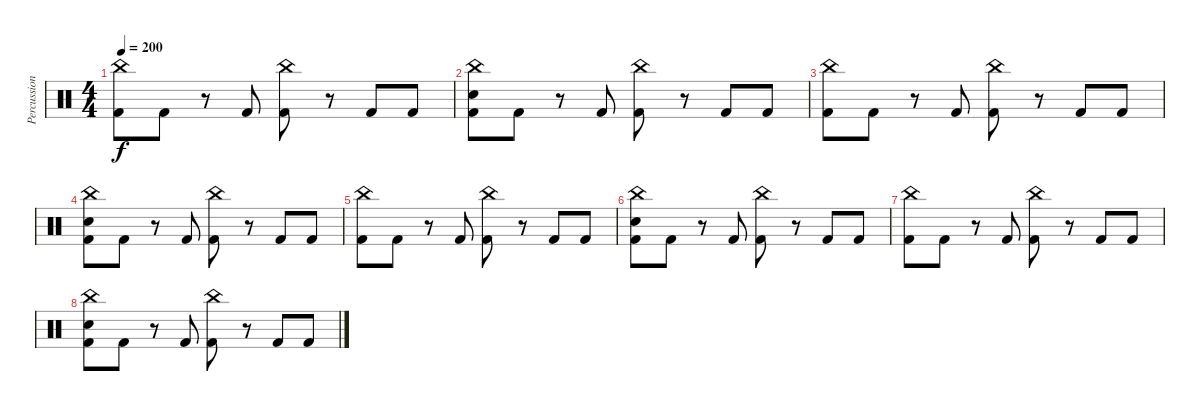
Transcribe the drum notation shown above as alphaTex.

\track ("Percussion" "Percussion") {instrument percussion}
\staff {score}
\articulation defaults
\ts (4 4)
\tempo 200
\clef neutral
\ks c
("China (hit)" "Kick (hit) 2").8{dy f} "Kick (hit) 2".8 r.8 "Kick (hit) 2".8 ("China (hit)" "Kick (hit) 2").8 r.8 "Kick (hit) 2".8 "Kick (hit) 2".8 |
("China (hit)" "Electric Snare (hit)" "Kick (hit) 2").8 "Kick (hit) 2".8 r.8 "Kick (hit) 2".8 ("China (hit)" "Kick (hit) 2").8 r.8 "Kick (hit) 2".8 "Kick (hit) 2".8 |
("China (hit)" "Kick (hit) 2").8 "Kick (hit) 2".8 r.8 "Kick (hit) 2".8 ("China (hit)" "Kick (hit) 2").8 r.8 "Kick (hit) 2".8 "Kick (hit) 2".8 |
("China (hit)" "Electric Snare (hit)" "Kick (hit) 2").8 "Kick (hit) 2".8 r.8 "Kick (hit) 2".8 ("China (hit)" "Kick (hit) 2").8 r.8 "Kick (hit) 2".8 "Kick (hit) 2".8 |
("China (hit)" "Kick (hit) 2").8 "Kick (hit) 2".8 r.8 "Kick (hit) 2".8 ("China (hit)" "Kick (hit) 2").8 r.8 "Kick (hit) 2".8 "Kick (hit) 2".8 |
("China (hit)" "Electric Snare (hit)" "Kick (hit) 2").8 "Kick (hit) 2".8 r.8 "Kick (hit) 2".8 ("China (hit)" "Kick (hit) 2").8 r.8 "Kick (hit) 2".8 "Kick (hit) 2".8 |
("China (hit)" "Kick (hit) 2").8 "Kick (hit) 2".8 r.8 "Kick (hit) 2".8 ("China (hit)" "Kick (hit) 2").8 r.8 "Kick (hit) 2".8 "Kick (hit) 2".8 |
("China (hit)" "Electric Snare (hit)" "Kick (hit) 2").8 "Kick (hit) 2".8 r.8 "Kick (hit) 2".8 ("China (hit)" "Kick (hit) 2").8 r.8 "Kick (hit) 2".8 "Kick (hit) 2".8
